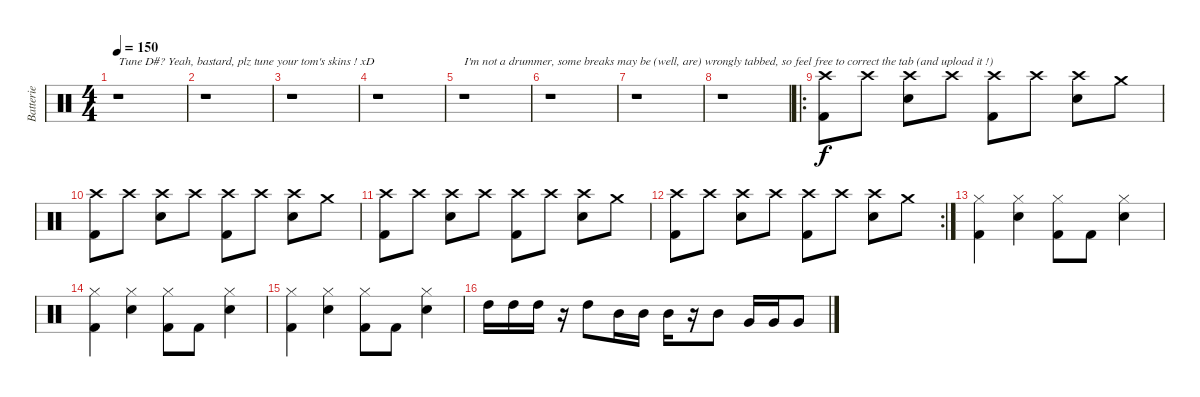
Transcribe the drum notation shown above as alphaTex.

\track ("Batterie" "Batterie") {instrument percussion}
\staff {score}
\articulation defaults
\ts (4 4)
\tempo 150
\clef neutral
\ks c
r.1{txt "Tune D#? Yeah, bastard, plz tune your tom's skins ! xD" dy f} |
r.1 |
r.1 |
r.1 |
r.1{txt "I'm not a drummer, some breaks may be (well, are) wrongly tabbed, so feel free to correct the tab (and upload it !)"} |
r.1 |
r.1 |
r.1 |
\ro
("Crash high (hit)" "Kick (hit) 2").8 "Crash high (hit)".8 ("Crash high (hit)" "Snare (hit) 2").8 "Crash high (hit)".8 ("Crash high (hit)" "Kick (hit) 2").8 "Crash high (hit)".8 ("Crash high (hit)" "Snare (hit) 2").8 "Crash medium (hit)".8 |
("Crash high (hit)" "Kick (hit) 2").8 "Crash high (hit)".8 ("Crash high (hit)" "Snare (hit) 2").8 "Crash high (hit)".8 ("Crash high (hit)" "Kick (hit) 2").8 "Crash high (hit)".8 ("Crash high (hit)" "Snare (hit) 2").8 "Crash medium (hit)".8 |
("Crash high (hit)" "Kick (hit) 2").8 "Crash high (hit)".8 ("Crash high (hit)" "Snare (hit) 2").8 "Crash high (hit)".8 ("Crash high (hit)" "Kick (hit) 2").8 "Crash high (hit)".8 ("Crash high (hit)" "Snare (hit) 2").8 "Crash medium (hit)".8 |
\rc 2
("Crash high (hit)" "Kick (hit) 2").8 "Crash high (hit)".8 ("Crash high (hit)" "Snare (hit) 2").8 "Crash high (hit)".8 ("Crash high (hit)" "Kick (hit) 2").8 "Crash high (hit)".8 ("Crash high (hit)" "Snare (hit) 2").8 "Crash medium (hit)".8 |
("Hi-Hat (closed)" "Kick (hit) 2").4 ("Hi-Hat (closed)" "Snare (hit) 2").4 ("Hi-Hat (closed)" "Kick (hit) 2").8 "Kick (hit) 2".8 ("Hi-Hat (closed)" "Snare (hit) 2").4 |
("Hi-Hat (closed)" "Kick (hit) 2").4 ("Hi-Hat (closed)" "Snare (hit) 2").4 ("Hi-Hat (closed)" "Kick (hit) 2").8 "Kick (hit) 2".8 ("Hi-Hat (closed)" "Snare (hit) 2").4 |
("Hi-Hat (closed)" "Kick (hit) 2").4 ("Hi-Hat (closed)" "Snare (hit) 2").4 ("Hi-Hat (closed)" "Kick (hit) 2").8 "Kick (hit) 2".8 ("Hi-Hat (closed)" "Snare (hit) 2").4 |
"High Tom (hit)".16 "High Tom (hit)".16 "High Tom (hit)".16 r.16 "High Tom (hit)".8 "Mid Tom (hit)".16 "Mid Tom (hit)".16 "Mid Tom (hit)".16 r.16 "Mid Tom (hit)".8 "Very Low Tom (hit)".16 "Very Low Tom (hit)".16 "Very Low Tom (hit)".8
